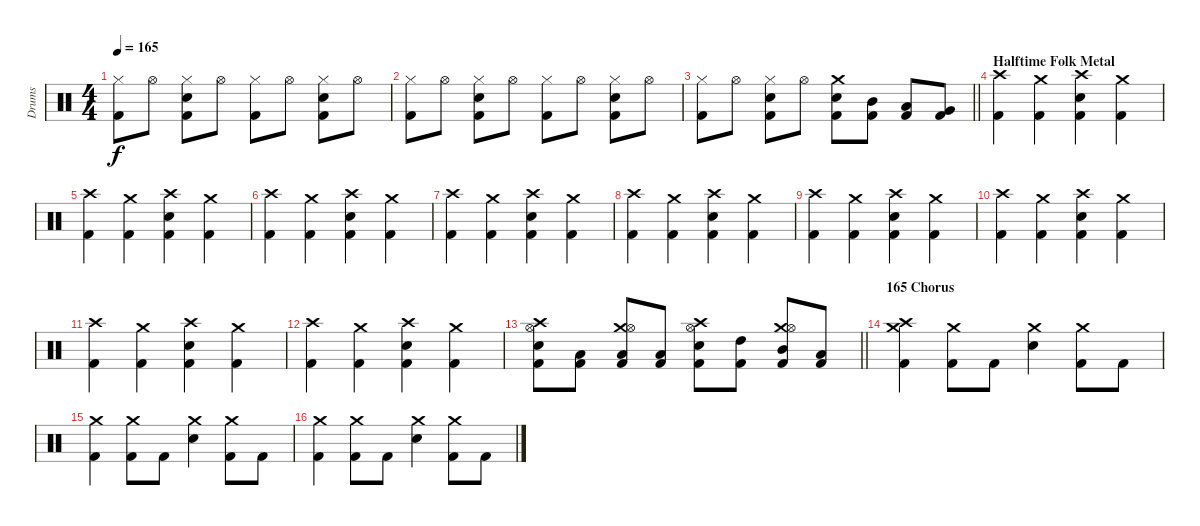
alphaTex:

\track ("Drums" "Drums") {instrument percussion}
\staff {score}
\articulation defaults
\ts (4 4)
\tempo 165
\clef neutral
\ks c
("Hi-Hat (closed)" "Kick (hit) 2").8{dy f} "Hi-Hat (open)".8 ("Hi-Hat (closed)" "Snare (hit) 2" "Kick (hit) 2").8 "Hi-Hat (open)".8 ("Hi-Hat (closed)" "Kick (hit) 2").8 "Hi-Hat (open)".8 ("Hi-Hat (closed)" "Snare (hit) 2" "Kick (hit) 2").8 "Hi-Hat (open)".8 |
("Hi-Hat (closed)" "Kick (hit) 2").8 "Hi-Hat (open)".8 ("Hi-Hat (closed)" "Snare (hit) 2" "Kick (hit) 2").8 "Hi-Hat (open)".8 ("Hi-Hat (closed)" "Kick (hit) 2").8 "Hi-Hat (open)".8 ("Hi-Hat (closed)" "Snare (hit) 2" "Kick (hit) 2").8 "Hi-Hat (open)".8 |
\barLineRight lightlight
("Hi-Hat (closed)" "Kick (hit) 2").8 "Hi-Hat (open)".8 ("Hi-Hat (closed)" "Snare (hit) 2" "Kick (hit) 2").8 "Hi-Hat (open)".8 ("Crash medium (hit)" "Snare (hit) 2" "Kick (hit) 2").8 ("Mid Tom (hit)" "Kick (hit) 2").8 ("Low Tom (hit)" "Kick (hit) 2").8 ("Very Low Tom (hit)" "Kick (hit) 2").8 |
\section ("" "Halftime Folk Metal")
("Crash high (hit)" "Kick (hit) 2").4 ("Crash medium (hit)" "Kick (hit) 2").4 ("Crash high (hit)" "Snare (hit) 2" "Kick (hit) 2").4 ("Crash medium (hit)" "Kick (hit) 2").4 |
("Crash high (hit)" "Kick (hit) 2").4 ("Crash medium (hit)" "Kick (hit) 2").4 ("Crash high (hit)" "Snare (hit) 2" "Kick (hit) 2").4 ("Crash medium (hit)" "Kick (hit) 2").4 |
("Crash high (hit)" "Kick (hit) 2").4 ("Crash medium (hit)" "Kick (hit) 2").4 ("Crash high (hit)" "Snare (hit) 2" "Kick (hit) 2").4 ("Crash medium (hit)" "Kick (hit) 2").4 |
("Crash high (hit)" "Kick (hit) 2").4 ("Crash medium (hit)" "Kick (hit) 2").4 ("Crash high (hit)" "Snare (hit) 2" "Kick (hit) 2").4 ("Crash medium (hit)" "Kick (hit) 2").4 |
("Crash high (hit)" "Kick (hit) 2").4 ("Crash medium (hit)" "Kick (hit) 2").4 ("Crash high (hit)" "Snare (hit) 2" "Kick (hit) 2").4 ("Crash medium (hit)" "Kick (hit) 2").4 |
("Crash high (hit)" "Kick (hit) 2").4 ("Crash medium (hit)" "Kick (hit) 2").4 ("Crash high (hit)" "Snare (hit) 2" "Kick (hit) 2").4 ("Crash medium (hit)" "Kick (hit) 2").4 |
("Crash high (hit)" "Kick (hit) 2").4 ("Crash medium (hit)" "Kick (hit) 2").4 ("Crash high (hit)" "Snare (hit) 2" "Kick (hit) 2").4 ("Crash medium (hit)" "Kick (hit) 2").4 |
("Crash high (hit)" "Kick (hit) 2").4 ("Crash medium (hit)" "Kick (hit) 2").4 ("Crash high (hit)" "Snare (hit) 2" "Kick (hit) 2").4 ("Crash medium (hit)" "Kick (hit) 2").4 |
("Crash high (hit)" "Kick (hit) 2").4 ("Crash medium (hit)" "Kick (hit) 2").4 ("Crash high (hit)" "Snare (hit) 2" "Kick (hit) 2").4 ("Crash medium (hit)" "Kick (hit) 2").4 |
\barLineRight lightlight
("Crash high (hit)" "Hi-Hat (open)" "Snare (hit) 2" "Kick (hit) 2").8 ("Low Floor Tom (hit)" "Kick (hit) 2").8 ("Crash medium (hit)" "Hi-Hat (open)" "Low Floor Tom (hit)" "Kick (hit) 2").8 ("Low Floor Tom (hit)" "Kick (hit) 2").8 ("Crash high (hit)" "Hi-Hat (open)" "Snare (hit) 2" "Kick (hit) 2").8 ("High Tom (hit)" "Kick (hit) 2").8 ("Crash medium (hit)" "Hi-Hat (open)" "Mid Tom (hit)" "Kick (hit) 2").8 ("Low Tom (hit)" "Kick (hit) 2").8 |
\section ("" "165 Chorus")
("Crash high (hit)" "Crash medium (hit)" "Kick (hit) 2").4 ("Crash medium (hit)" "Kick (hit) 2").8 "Kick (hit) 2".8 ("Crash medium (hit)" "Snare (hit) 2").4 ("Crash medium (hit)" "Kick (hit) 2").8 "Kick (hit) 2".8 |
("Crash medium (hit)" "Kick (hit) 2").4 ("Crash medium (hit)" "Kick (hit) 2").8 "Kick (hit) 2".8 ("Crash medium (hit)" "Snare (hit) 2").4 ("Crash medium (hit)" "Kick (hit) 2").8 "Kick (hit) 2".8 |
("Crash medium (hit)" "Kick (hit) 2").4 ("Crash medium (hit)" "Kick (hit) 2").8 "Kick (hit) 2".8 ("Crash medium (hit)" "Snare (hit) 2").4 ("Crash medium (hit)" "Kick (hit) 2").8 "Kick (hit) 2".8
